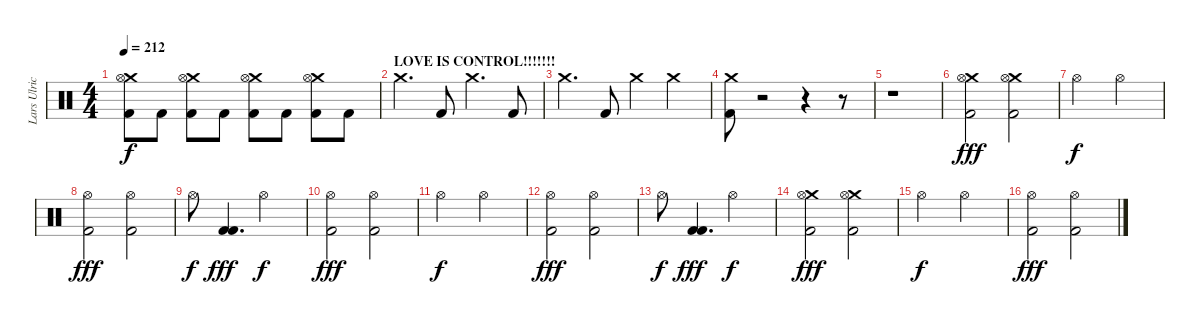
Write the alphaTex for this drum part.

\track ("Lars Ulrich" "Lars Ulric") {instrument percussion}
\staff {score}
\articulation defaults
\ts (4 4)
\tempo 212
\clef neutral
\ks c
("Crash medium (hit)" "Hi-Hat (open)" "Kick (hit) 2").8{dy f} "Kick (hit) 2".8 ("Crash medium (hit)" "Hi-Hat (open)" "Kick (hit) 2").8 "Kick (hit) 2".8 ("Crash medium (hit)" "Hi-Hat (open)" "Kick (hit) 2").8 "Kick (hit) 2".8 ("Crash medium (hit)" "Hi-Hat (open)" "Kick (hit) 2").8 "Kick (hit) 2".8 |
\section ("" "LOVE IS CONTROL!!!!!!!")
"Crash medium (hit)".4{d} "Kick (hit) 2".8 "Crash medium (hit)".4{d} "Kick (hit) 2".8 |
"Crash medium (hit)".4{d} "Kick (hit) 2".8 "Crash medium (hit)".4 "Crash medium (hit)".4 |
("Crash medium (hit)" "Kick (hit) 2").8 r.2 r.4 r.8 |
r.1 |
("Crash medium (hit)" "Hi-Hat (open)" "Kick (hit) 2").2{dy fff volume 14} ("Crash medium (hit)" "Hi-Hat (open)" "Kick (hit) 2").2 |
"Hi-Hat (open)".2{dy f} "Hi-Hat (open)".2 |
("Hi-Hat (open)" "Kick (hit) 2").2{dy fff} ("Hi-Hat (open)" "Kick (hit) 2").2 |
"Hi-Hat (open)".8{dy f} ("Kick (hit) 2" "Kick (hit) 2").4{d dy fff} "Hi-Hat (open)".2{dy f} |
("Hi-Hat (open)" "Kick (hit) 2").2{dy fff} ("Hi-Hat (open)" "Kick (hit) 2").2 |
"Hi-Hat (open)".2{dy f} "Hi-Hat (open)".2 |
("Hi-Hat (open)" "Kick (hit) 2").2{dy fff} ("Hi-Hat (open)" "Kick (hit) 2").2 |
"Hi-Hat (open)".8{dy f} ("Kick (hit) 2" "Kick (hit) 2").4{d dy fff} "Hi-Hat (open)".2{dy f} |
("Crash medium (hit)" "Hi-Hat (open)" "Kick (hit) 2").2{dy fff} ("Crash medium (hit)" "Hi-Hat (open)" "Kick (hit) 2").2 |
"Hi-Hat (open)".2{dy f} "Hi-Hat (open)".2 |
("Hi-Hat (open)" "Kick (hit) 2").2{dy fff} ("Hi-Hat (open)" "Kick (hit) 2").2
